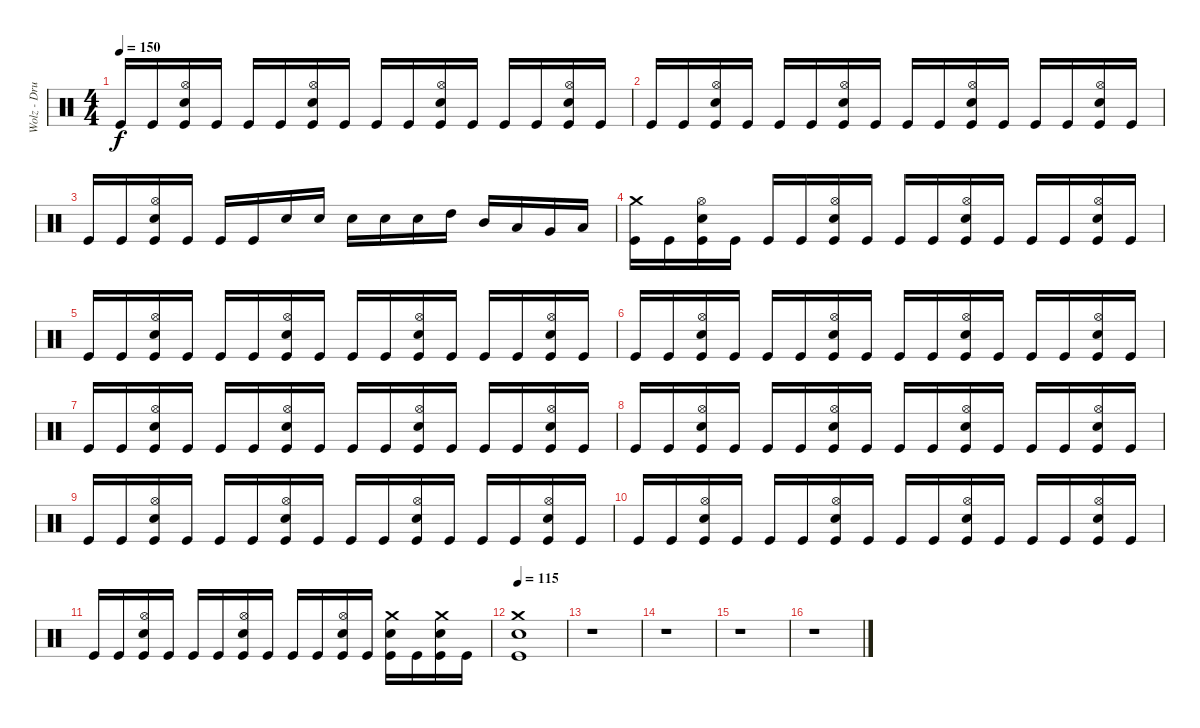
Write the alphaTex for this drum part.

\track ("Wolz - Drums" "Wolz - Dru") {instrument percussion}
\staff {score}
\articulation defaults
\ts (4 4)
\tempo 150
\clef neutral
\ks c "Kick (hit)".16{dy f} "Kick (hit)".16
("Hi-Hat (open)" "Electric Snare (hit)" "Kick (hit)").16 "Kick (hit)".16 "Kick (hit)".16 "Kick (hit)".16 ("Hi-Hat (open)" "Electric Snare (hit)" "Kick (hit)").16 "Kick (hit)".16 "Kick (hit)".16 "Kick (hit)".16 ("Hi-Hat (open)" "Electric Snare (hit)" "Kick (hit)").16 "Kick (hit)".16 "Kick (hit)".16 "Kick (hit)".16 ("Hi-Hat (open)" "Electric Snare (hit)" "Kick (hit)").16 "Kick (hit)".16 |
"Kick (hit)".16 "Kick (hit)".16 ("Hi-Hat (open)" "Electric Snare (hit)" "Kick (hit)").16 "Kick (hit)".16 "Kick (hit)".16 "Kick (hit)".16 ("Hi-Hat (open)" "Electric Snare (hit)" "Kick (hit)").16 "Kick (hit)".16 "Kick (hit)".16 "Kick (hit)".16 ("Hi-Hat (open)" "Electric Snare (hit)" "Kick (hit)").16 "Kick (hit)".16 "Kick (hit)".16 "Kick (hit)".16 ("Hi-Hat (open)" "Electric Snare (hit)" "Kick (hit)").16 "Kick (hit)".16 |
"Kick (hit)".16 "Kick (hit)".16 ("Hi-Hat (open)" "Electric Snare (hit)" "Kick (hit)").16 "Kick (hit)".16 "Kick (hit)".16 "Kick (hit)".16 "Electric Snare (hit)".16 "Electric Snare (hit)".16 "Electric Snare (hit)".16 "Electric Snare (hit)".16 "Electric Snare (hit)".16 "High Tom (hit)".16 "Mid Tom (hit)".16 "Low Tom (hit)".16 "Very Low Tom (hit)".16 "Low Floor Tom (hit)".16 |
("Crash medium (hit)" "Kick (hit)").16 "Kick (hit)".16 ("Hi-Hat (open)" "Electric Snare (hit)" "Kick (hit)").16 "Kick (hit)".16 "Kick (hit)".16 "Kick (hit)".16 ("Hi-Hat (open)" "Electric Snare (hit)" "Kick (hit)").16 "Kick (hit)".16 "Kick (hit)".16 "Kick (hit)".16 ("Hi-Hat (open)" "Electric Snare (hit)" "Kick (hit)").16 "Kick (hit)".16 "Kick (hit)".16 "Kick (hit)".16 ("Hi-Hat (open)" "Electric Snare (hit)" "Kick (hit)").16 "Kick (hit)".16 |
"Kick (hit)".16 "Kick (hit)".16 ("Hi-Hat (open)" "Electric Snare (hit)" "Kick (hit)").16 "Kick (hit)".16 "Kick (hit)".16 "Kick (hit)".16 ("Hi-Hat (open)" "Electric Snare (hit)" "Kick (hit)").16 "Kick (hit)".16 "Kick (hit)".16 "Kick (hit)".16 ("Hi-Hat (open)" "Electric Snare (hit)" "Kick (hit)").16 "Kick (hit)".16 "Kick (hit)".16 "Kick (hit)".16 ("Hi-Hat (open)" "Electric Snare (hit)" "Kick (hit)").16 "Kick (hit)".16 |
"Kick (hit)".16 "Kick (hit)".16 ("Hi-Hat (open)" "Electric Snare (hit)" "Kick (hit)").16 "Kick (hit)".16 "Kick (hit)".16 "Kick (hit)".16 ("Hi-Hat (open)" "Electric Snare (hit)" "Kick (hit)").16 "Kick (hit)".16 "Kick (hit)".16 "Kick (hit)".16 ("Hi-Hat (open)" "Electric Snare (hit)" "Kick (hit)").16 "Kick (hit)".16 "Kick (hit)".16 "Kick (hit)".16 ("Hi-Hat (open)" "Electric Snare (hit)" "Kick (hit)").16 "Kick (hit)".16 |
"Kick (hit)".16 "Kick (hit)".16 ("Hi-Hat (open)" "Electric Snare (hit)" "Kick (hit)").16 "Kick (hit)".16 "Kick (hit)".16 "Kick (hit)".16 ("Hi-Hat (open)" "Electric Snare (hit)" "Kick (hit)").16 "Kick (hit)".16 "Kick (hit)".16 "Kick (hit)".16 ("Hi-Hat (open)" "Electric Snare (hit)" "Kick (hit)").16 "Kick (hit)".16 "Kick (hit)".16 "Kick (hit)".16 ("Hi-Hat (open)" "Electric Snare (hit)" "Kick (hit)").16 "Kick (hit)".16 |
"Kick (hit)".16 "Kick (hit)".16 ("Hi-Hat (open)" "Electric Snare (hit)" "Kick (hit)").16 "Kick (hit)".16 "Kick (hit)".16 "Kick (hit)".16 ("Hi-Hat (open)" "Electric Snare (hit)" "Kick (hit)").16 "Kick (hit)".16 "Kick (hit)".16 "Kick (hit)".16 ("Hi-Hat (open)" "Electric Snare (hit)" "Kick (hit)").16 "Kick (hit)".16 "Kick (hit)".16 "Kick (hit)".16 ("Hi-Hat (open)" "Electric Snare (hit)" "Kick (hit)").16 "Kick (hit)".16 |
"Kick (hit)".16 "Kick (hit)".16 ("Hi-Hat (open)" "Electric Snare (hit)" "Kick (hit)").16 "Kick (hit)".16 "Kick (hit)".16 "Kick (hit)".16 ("Hi-Hat (open)" "Electric Snare (hit)" "Kick (hit)").16 "Kick (hit)".16 "Kick (hit)".16 "Kick (hit)".16 ("Hi-Hat (open)" "Electric Snare (hit)" "Kick (hit)").16 "Kick (hit)".16 "Kick (hit)".16 "Kick (hit)".16 ("Hi-Hat (open)" "Electric Snare (hit)" "Kick (hit)").16 "Kick (hit)".16 |
"Kick (hit)".16 "Kick (hit)".16 ("Hi-Hat (open)" "Electric Snare (hit)" "Kick (hit)").16 "Kick (hit)".16 "Kick (hit)".16 "Kick (hit)".16 ("Hi-Hat (open)" "Electric Snare (hit)" "Kick (hit)").16 "Kick (hit)".16 "Kick (hit)".16 "Kick (hit)".16 ("Hi-Hat (open)" "Electric Snare (hit)" "Kick (hit)").16 "Kick (hit)".16 "Kick (hit)".16 "Kick (hit)".16 ("Hi-Hat (open)" "Electric Snare (hit)" "Kick (hit)").16 "Kick (hit)".16 |
"Kick (hit)".16 "Kick (hit)".16 ("Hi-Hat (open)" "Electric Snare (hit)" "Kick (hit)").16 "Kick (hit)".16 "Kick (hit)".16 "Kick (hit)".16 ("Hi-Hat (open)" "Electric Snare (hit)" "Kick (hit)").16 "Kick (hit)".16 "Kick (hit)".16 "Kick (hit)".16 ("Hi-Hat (open)" "Electric Snare (hit)" "Kick (hit)").16 "Kick (hit)".16 ("Crash medium (hit)" "Electric Snare (hit)" "Kick (hit)").16 "Kick (hit)".16 ("Crash medium (hit)" "Electric Snare (hit)" "Kick (hit)").16 "Kick (hit)".16 |
\tempo 115
("Crash medium (hit)" "Electric Snare (hit)" "Kick (hit)").1 |
r.1 |
r.1 |
r.1 |
r.1
